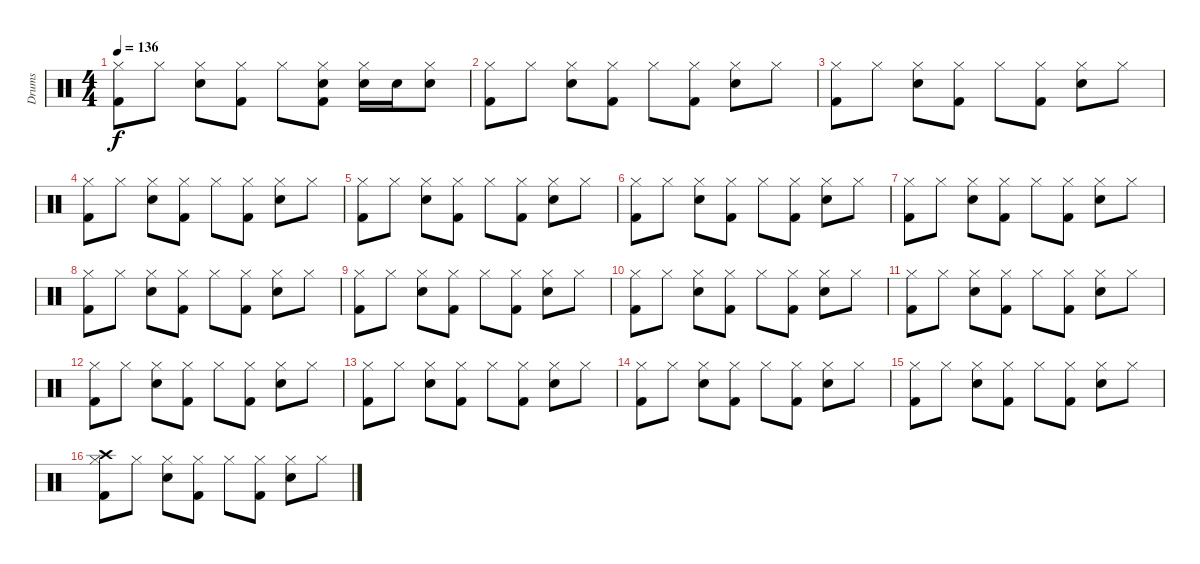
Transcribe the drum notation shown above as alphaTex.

\track ("Drums" "Drums") {instrument percussion}
\staff {score}
\articulation defaults
\ts (4 4)
\tempo 136
\clef neutral
\ks c
("Hi-Hat (closed)" "Kick (hit) 2").8{dy f} "Hi-Hat (closed)".8 ("Hi-Hat (closed)" "Snare (hit) 2").8 ("Hi-Hat (closed)" "Kick (hit) 2").8 "Hi-Hat (closed)".8 ("Hi-Hat (closed)" "Snare (hit) 2" "Kick (hit) 2").8 ("Hi-Hat (closed)" "Snare (hit) 2").16 "Snare (hit) 2".16 ("Hi-Hat (closed)" "Snare (hit) 2").8 |
("Hi-Hat (closed)" "Kick (hit) 2").8 "Hi-Hat (closed)".8 ("Hi-Hat (closed)" "Snare (hit) 2").8 ("Hi-Hat (closed)" "Kick (hit) 2").8 "Hi-Hat (closed)".8 ("Hi-Hat (closed)" "Kick (hit) 2").8 ("Hi-Hat (closed)" "Snare (hit) 2").8 "Hi-Hat (closed)".8 |
("Hi-Hat (closed)" "Kick (hit) 2").8 "Hi-Hat (closed)".8 ("Hi-Hat (closed)" "Snare (hit) 2").8 ("Hi-Hat (closed)" "Kick (hit) 2").8 "Hi-Hat (closed)".8 ("Hi-Hat (closed)" "Kick (hit) 2").8 ("Hi-Hat (closed)" "Snare (hit) 2").8 "Hi-Hat (closed)".8 |
("Hi-Hat (closed)" "Kick (hit) 2").8 "Hi-Hat (closed)".8 ("Hi-Hat (closed)" "Snare (hit) 2").8 ("Hi-Hat (closed)" "Kick (hit) 2").8 "Hi-Hat (closed)".8 ("Hi-Hat (closed)" "Kick (hit) 2").8 ("Hi-Hat (closed)" "Snare (hit) 2").8 "Hi-Hat (closed)".8 |
("Hi-Hat (closed)" "Kick (hit) 2").8 "Hi-Hat (closed)".8 ("Hi-Hat (closed)" "Snare (hit) 2").8 ("Hi-Hat (closed)" "Kick (hit) 2").8 "Hi-Hat (closed)".8 ("Hi-Hat (closed)" "Kick (hit) 2").8 ("Hi-Hat (closed)" "Snare (hit) 2").8 "Hi-Hat (closed)".8 |
("Hi-Hat (closed)" "Kick (hit) 2").8 "Hi-Hat (closed)".8 ("Hi-Hat (closed)" "Snare (hit) 2").8 ("Hi-Hat (closed)" "Kick (hit) 2").8 "Hi-Hat (closed)".8 ("Hi-Hat (closed)" "Kick (hit) 2").8 ("Hi-Hat (closed)" "Snare (hit) 2").8 "Hi-Hat (closed)".8 |
("Hi-Hat (closed)" "Kick (hit) 2").8 "Hi-Hat (closed)".8 ("Hi-Hat (closed)" "Snare (hit) 2").8 ("Hi-Hat (closed)" "Kick (hit) 2").8 "Hi-Hat (closed)".8 ("Hi-Hat (closed)" "Kick (hit) 2").8 ("Hi-Hat (closed)" "Snare (hit) 2").8 "Hi-Hat (closed)".8 |
("Hi-Hat (closed)" "Kick (hit) 2").8 "Hi-Hat (closed)".8 ("Hi-Hat (closed)" "Snare (hit) 2").8 ("Hi-Hat (closed)" "Kick (hit) 2").8 "Hi-Hat (closed)".8 ("Hi-Hat (closed)" "Kick (hit) 2").8 ("Hi-Hat (closed)" "Snare (hit) 2").8 "Hi-Hat (closed)".8 |
("Hi-Hat (closed)" "Kick (hit) 2").8 "Hi-Hat (closed)".8 ("Hi-Hat (closed)" "Snare (hit) 2").8 ("Hi-Hat (closed)" "Kick (hit) 2").8 "Hi-Hat (closed)".8 ("Hi-Hat (closed)" "Kick (hit) 2").8 ("Hi-Hat (closed)" "Snare (hit) 2").8 "Hi-Hat (closed)".8 |
("Hi-Hat (closed)" "Kick (hit) 2").8 "Hi-Hat (closed)".8 ("Hi-Hat (closed)" "Snare (hit) 2").8 ("Hi-Hat (closed)" "Kick (hit) 2").8 "Hi-Hat (closed)".8 ("Hi-Hat (closed)" "Kick (hit) 2").8 ("Hi-Hat (closed)" "Snare (hit) 2").8 "Hi-Hat (closed)".8 |
("Hi-Hat (closed)" "Kick (hit) 2").8 "Hi-Hat (closed)".8 ("Hi-Hat (closed)" "Snare (hit) 2").8 ("Hi-Hat (closed)" "Kick (hit) 2").8 "Hi-Hat (closed)".8 ("Hi-Hat (closed)" "Kick (hit) 2").8 ("Hi-Hat (closed)" "Snare (hit) 2").8 "Hi-Hat (closed)".8 |
("Hi-Hat (closed)" "Kick (hit) 2").8 "Hi-Hat (closed)".8 ("Hi-Hat (closed)" "Snare (hit) 2").8 ("Hi-Hat (closed)" "Kick (hit) 2").8 "Hi-Hat (closed)".8 ("Hi-Hat (closed)" "Kick (hit) 2").8 ("Hi-Hat (closed)" "Snare (hit) 2").8 "Hi-Hat (closed)".8 |
("Hi-Hat (closed)" "Kick (hit) 2").8 "Hi-Hat (closed)".8 ("Hi-Hat (closed)" "Snare (hit) 2").8 ("Hi-Hat (closed)" "Kick (hit) 2").8 "Hi-Hat (closed)".8 ("Hi-Hat (closed)" "Kick (hit) 2").8 ("Hi-Hat (closed)" "Snare (hit) 2").8 "Hi-Hat (closed)".8 |
("Hi-Hat (closed)" "Kick (hit) 2").8 "Hi-Hat (closed)".8 ("Hi-Hat (closed)" "Snare (hit) 2").8 ("Hi-Hat (closed)" "Kick (hit) 2").8 "Hi-Hat (closed)".8 ("Hi-Hat (closed)" "Kick (hit) 2").8 ("Hi-Hat (closed)" "Snare (hit) 2").8 "Hi-Hat (closed)".8 |
("Hi-Hat (closed)" "Kick (hit) 2").8 "Hi-Hat (closed)".8 ("Hi-Hat (closed)" "Snare (hit) 2").8 ("Hi-Hat (closed)" "Kick (hit) 2").8 "Hi-Hat (closed)".8 ("Hi-Hat (closed)" "Kick (hit) 2").8 ("Hi-Hat (closed)" "Snare (hit) 2").8 "Hi-Hat (closed)".8 |
("Crash high (hit)" "Hi-Hat (closed)" "Kick (hit) 2").8 "Hi-Hat (closed)".8 ("Hi-Hat (closed)" "Snare (hit) 2").8 ("Hi-Hat (closed)" "Kick (hit) 2").8 "Hi-Hat (closed)".8 ("Hi-Hat (closed)" "Kick (hit) 2").8 ("Hi-Hat (closed)" "Snare (hit) 2").8 "Hi-Hat (closed)".8
